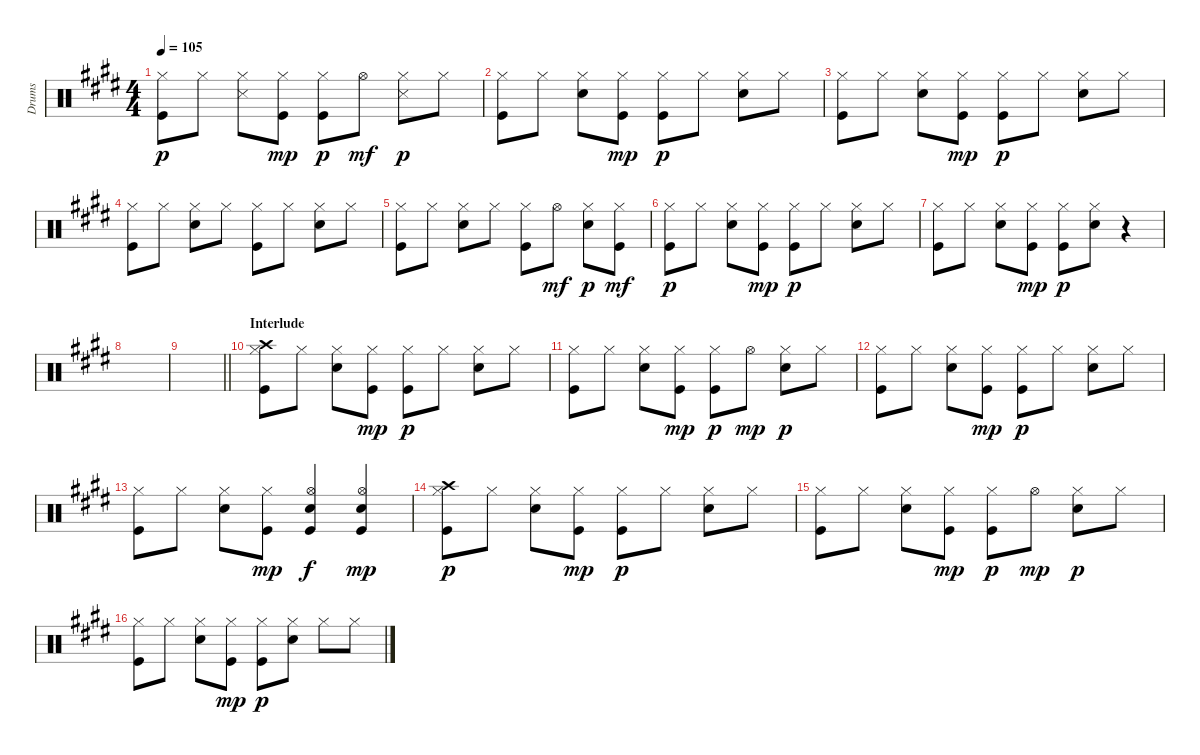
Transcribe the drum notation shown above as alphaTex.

\track ("Drums" "Drums") {instrument percussion}
\staff {score}
\articulation defaults
\ts (4 4)
\tempo 105
\clef neutral
\ks e
("Hi-Hat (closed)" "Kick (hit)").8{dy p} "Hi-Hat (closed)".8 ("Snare (side stick) 3" "Hi-Hat (closed)").8 ("Hi-Hat (closed)" "Kick (hit)").8{dy mp} ("Hi-Hat (closed)" "Kick (hit)").8{dy p} "Hi-Hat (open)".8{dy mf} ("Snare (side stick) 3" "Hi-Hat (closed)").8{dy p} "Hi-Hat (closed)".8 |
("Hi-Hat (closed)" "Kick (hit)").8 "Hi-Hat (closed)".8 ("Snare (hit) 2" "Hi-Hat (closed)").8 ("Hi-Hat (closed)" "Kick (hit)").8{dy mp} ("Hi-Hat (closed)" "Kick (hit)").8{dy p} "Hi-Hat (closed)".8 ("Snare (hit) 2" "Hi-Hat (closed)").8 "Hi-Hat (closed)".8 |
("Hi-Hat (closed)" "Kick (hit)").8 "Hi-Hat (closed)".8 ("Snare (hit) 2" "Hi-Hat (closed)").8 ("Hi-Hat (closed)" "Kick (hit)").8{dy mp} ("Hi-Hat (closed)" "Kick (hit)").8{dy p} "Hi-Hat (closed)".8 ("Snare (hit) 2" "Hi-Hat (closed)").8 "Hi-Hat (closed)".8 |
("Hi-Hat (closed)" "Kick (hit)").8 "Hi-Hat (closed)".8 ("Snare (hit) 2" "Hi-Hat (closed)").8 "Hi-Hat (closed)".8 ("Hi-Hat (closed)" "Kick (hit)").8 "Hi-Hat (closed)".8 ("Snare (hit) 2" "Hi-Hat (closed)").8 "Hi-Hat (closed)".8 |
("Hi-Hat (closed)" "Kick (hit)").8 "Hi-Hat (closed)".8 ("Snare (hit) 2" "Hi-Hat (closed)").8 "Hi-Hat (closed)".8 ("Hi-Hat (closed)" "Kick (hit)").8 "Hi-Hat (open)".8{dy mf} ("Snare (hit) 2" "Hi-Hat (closed)").8{dy p} ("Hi-Hat (closed)" "Kick (hit)").8{dy mf} |
("Hi-Hat (closed)" "Kick (hit)").8{dy p} "Hi-Hat (closed)".8 ("Snare (hit) 2" "Hi-Hat (closed)").8 ("Hi-Hat (closed)" "Kick (hit)").8{dy mp} ("Hi-Hat (closed)" "Kick (hit)").8{dy p} "Hi-Hat (closed)".8 ("Snare (hit) 2" "Hi-Hat (closed)").8 "Hi-Hat (closed)".8 |
("Hi-Hat (closed)" "Kick (hit)").8 "Hi-Hat (closed)".8 ("Snare (hit) 2" "Hi-Hat (closed)").8 ("Hi-Hat (closed)" "Kick (hit)").8{dy mp} ("Hi-Hat (closed)" "Kick (hit)").8{dy p} ("Snare (hit) 2" "Hi-Hat (closed)").8 r.4 |
|
\barLineRight lightlight
|
\section ("" "Interlude")
("Crash high (hit)" "Hi-Hat (closed)" "Kick (hit)").8 "Hi-Hat (closed)".8 ("Snare (hit) 2" "Hi-Hat (closed)").8 ("Hi-Hat (closed)" "Kick (hit)").8{dy mp} ("Hi-Hat (closed)" "Kick (hit)").8{dy p} "Hi-Hat (closed)".8 ("Snare (hit) 2" "Hi-Hat (closed)").8 "Hi-Hat (closed)".8 |
("Hi-Hat (closed)" "Kick (hit)").8 "Hi-Hat (closed)".8 ("Snare (hit) 2" "Hi-Hat (closed)").8 ("Hi-Hat (closed)" "Kick (hit)").8{dy mp} ("Hi-Hat (closed)" "Kick (hit)").8{dy p} "Hi-Hat (open)".8{dy mp} ("Snare (hit) 2" "Hi-Hat (closed)").8{dy p} "Hi-Hat (closed)".8 |
("Hi-Hat (closed)" "Kick (hit)").8 "Hi-Hat (closed)".8 ("Snare (hit) 2" "Hi-Hat (closed)").8 ("Hi-Hat (closed)" "Kick (hit)").8{dy mp} ("Hi-Hat (closed)" "Kick (hit)").8{dy p} "Hi-Hat (closed)".8 ("Snare (hit) 2" "Hi-Hat (closed)").8 "Hi-Hat (closed)".8 |
("Hi-Hat (closed)" "Kick (hit)").8 "Hi-Hat (closed)".8 ("Snare (hit) 2" "Hi-Hat (closed)").8 ("Hi-Hat (closed)" "Kick (hit)").8{dy mp} ("Snare (hit) 2" "Hi-Hat (open)" "Kick (hit)").4{dy f} ("Snare (hit) 2" "Hi-Hat (open)" "Kick (hit)").4{dy mp} |
("Crash high (hit)" "Hi-Hat (closed)" "Kick (hit)").8{dy p} "Hi-Hat (closed)".8 ("Snare (hit) 2" "Hi-Hat (closed)").8 ("Hi-Hat (closed)" "Kick (hit)").8{dy mp} ("Hi-Hat (closed)" "Kick (hit)").8{dy p} "Hi-Hat (closed)".8 ("Snare (hit) 2" "Hi-Hat (closed)").8 "Hi-Hat (closed)".8 |
("Hi-Hat (closed)" "Kick (hit)").8 "Hi-Hat (closed)".8 ("Snare (hit) 2" "Hi-Hat (closed)").8 ("Hi-Hat (closed)" "Kick (hit)").8{dy mp} ("Hi-Hat (closed)" "Kick (hit)").8{dy p} "Hi-Hat (open)".8{dy mp} ("Snare (hit) 2" "Hi-Hat (closed)").8{dy p} "Hi-Hat (closed)".8 |
("Hi-Hat (closed)" "Kick (hit)").8 "Hi-Hat (closed)".8 ("Snare (hit) 2" "Hi-Hat (closed)").8 ("Hi-Hat (closed)" "Kick (hit)").8{dy mp} ("Hi-Hat (closed)" "Kick (hit)").8{dy p} ("Snare (hit) 2" "Hi-Hat (closed)").8 "Hi-Hat (closed)".8 "Hi-Hat (closed)".8
